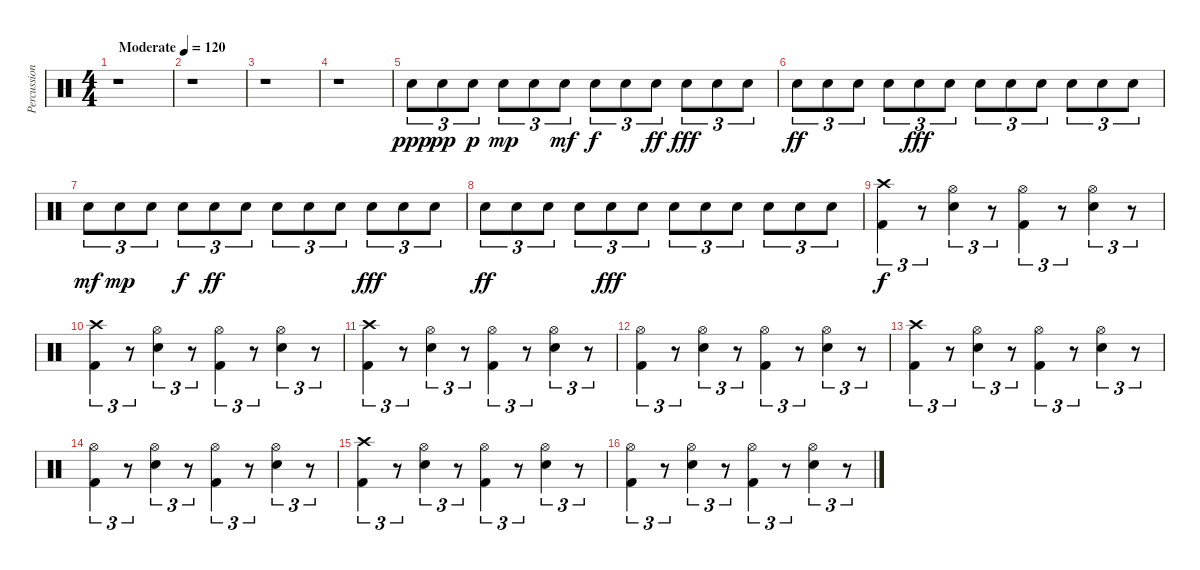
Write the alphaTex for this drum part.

\track ("Percussioni" "Percussion") {instrument percussion}
\staff {score}
\articulation defaults
\ts (4 4)
\tempo (120 "Moderate")
\clef neutral
\ks c
r.1{dy ppp} |
r.1 |
r.1 |
r.1 |
"Electric Snare (hit)".8{tu (3 2)} "Electric Snare (hit)".8{tu (3 2) dy pp} "Electric Snare (hit)".8{tu (3 2) dy p} "Electric Snare (hit)".8{tu (3 2) dy mp} "Electric Snare (hit)".8{tu (3 2)} "Electric Snare (hit)".8{tu (3 2) dy mf} "Electric Snare (hit)".8{tu (3 2) dy f} "Electric Snare (hit)".8{tu (3 2)} "Electric Snare (hit)".8{tu (3 2) dy ff} "Electric Snare (hit)".8{tu (3 2) dy fff} "Electric Snare (hit)".8{tu (3 2)} "Electric Snare (hit)".8{tu (3 2)} |
"Electric Snare (hit)".8{tu (3 2) dy ff} "Electric Snare (hit)".8{tu (3 2)} "Electric Snare (hit)".8{tu (3 2)} "Electric Snare (hit)".8{tu (3 2)} "Electric Snare (hit)".8{tu (3 2) dy fff} "Electric Snare (hit)".8{tu (3 2)} "Electric Snare (hit)".8{tu (3 2)} "Electric Snare (hit)".8{tu (3 2)} "Electric Snare (hit)".8{tu (3 2)} "Electric Snare (hit)".8{tu (3 2)} "Electric Snare (hit)".8{tu (3 2)} "Electric Snare (hit)".8{tu (3 2)} |
"Electric Snare (hit)".8{tu (3 2) dy mf} "Electric Snare (hit)".8{tu (3 2) dy mp} "Electric Snare (hit)".8{tu (3 2)} "Electric Snare (hit)".8{tu (3 2) dy f} "Electric Snare (hit)".8{tu (3 2) dy ff} "Electric Snare (hit)".8{tu (3 2)} "Electric Snare (hit)".8{tu (3 2)} "Electric Snare (hit)".8{tu (3 2)} "Electric Snare (hit)".8{tu (3 2)} "Electric Snare (hit)".8{tu (3 2) dy fff} "Electric Snare (hit)".8{tu (3 2)} "Electric Snare (hit)".8{tu (3 2)} |
"Electric Snare (hit)".8{tu (3 2) dy ff} "Electric Snare (hit)".8{tu (3 2)} "Electric Snare (hit)".8{tu (3 2)} "Electric Snare (hit)".8{tu (3 2)} "Electric Snare (hit)".8{tu (3 2) dy fff} "Electric Snare (hit)".8{tu (3 2)} "Electric Snare (hit)".8{tu (3 2)} "Electric Snare (hit)".8{tu (3 2)} "Electric Snare (hit)".8{tu (3 2)} "Electric Snare (hit)".8{tu (3 2)} "Electric Snare (hit)".8{tu (3 2)} "Electric Snare (hit)".8{tu (3 2)} |
("Kick (hit) 2" "Crash high (hit)").4{tu (3 2) dy f} r.8{tu (3 2)} ("Electric Snare (hit)" "Hi-Hat (open)").4{tu (3 2)} r.8{tu (3 2)} ("Kick (hit) 2" "Hi-Hat (open)").4{tu (3 2)} r.8{tu (3 2)} ("Electric Snare (hit)" "Hi-Hat (open)").4{tu (3 2)} r.8{tu (3 2)} |
("Kick (hit) 2" "Crash high (hit)").4{tu (3 2)} r.8{tu (3 2)} ("Electric Snare (hit)" "Hi-Hat (open)").4{tu (3 2)} r.8{tu (3 2)} ("Kick (hit) 2" "Hi-Hat (open)").4{tu (3 2)} r.8{tu (3 2)} ("Electric Snare (hit)" "Hi-Hat (open)").4{tu (3 2)} r.8{tu (3 2)} |
("Kick (hit) 2" "Crash high (hit)").4{tu (3 2)} r.8{tu (3 2)} ("Electric Snare (hit)" "Hi-Hat (open)").4{tu (3 2)} r.8{tu (3 2)} ("Kick (hit) 2" "Hi-Hat (open)").4{tu (3 2)} r.8{tu (3 2)} ("Electric Snare (hit)" "Hi-Hat (open)").4{tu (3 2)} r.8{tu (3 2)} |
("Kick (hit) 2" "Hi-Hat (open)").4{tu (3 2)} r.8{tu (3 2)} ("Electric Snare (hit)" "Hi-Hat (open)").4{tu (3 2)} r.8{tu (3 2)} ("Kick (hit) 2" "Hi-Hat (open)").4{tu (3 2)} r.8{tu (3 2)} ("Electric Snare (hit)" "Hi-Hat (open)").4{tu (3 2)} r.8{tu (3 2)} |
("Kick (hit) 2" "Crash high (hit)").4{tu (3 2)} r.8{tu (3 2)} ("Electric Snare (hit)" "Hi-Hat (open)").4{tu (3 2)} r.8{tu (3 2)} ("Kick (hit) 2" "Hi-Hat (open)").4{tu (3 2)} r.8{tu (3 2)} ("Electric Snare (hit)" "Hi-Hat (open)").4{tu (3 2)} r.8{tu (3 2)} |
("Kick (hit) 2" "Hi-Hat (open)").4{tu (3 2)} r.8{tu (3 2)} ("Electric Snare (hit)" "Hi-Hat (open)").4{tu (3 2)} r.8{tu (3 2)} ("Kick (hit) 2" "Hi-Hat (open)").4{tu (3 2)} r.8{tu (3 2)} ("Electric Snare (hit)" "Hi-Hat (open)").4{tu (3 2)} r.8{tu (3 2)} |
("Kick (hit) 2" "Crash high (hit)").4{tu (3 2)} r.8{tu (3 2)} ("Electric Snare (hit)" "Hi-Hat (open)").4{tu (3 2)} r.8{tu (3 2)} ("Kick (hit) 2" "Hi-Hat (open)").4{tu (3 2)} r.8{tu (3 2)} ("Electric Snare (hit)" "Hi-Hat (open)").4{tu (3 2)} r.8{tu (3 2)} |
("Kick (hit) 2" "Hi-Hat (open)").4{tu (3 2)} r.8{tu (3 2)} ("Electric Snare (hit)" "Hi-Hat (open)").4{tu (3 2)} r.8{tu (3 2)} ("Kick (hit) 2" "Hi-Hat (open)").4{tu (3 2)} r.8{tu (3 2)} ("Electric Snare (hit)" "Hi-Hat (open)").4{tu (3 2)} r.8{tu (3 2)}
